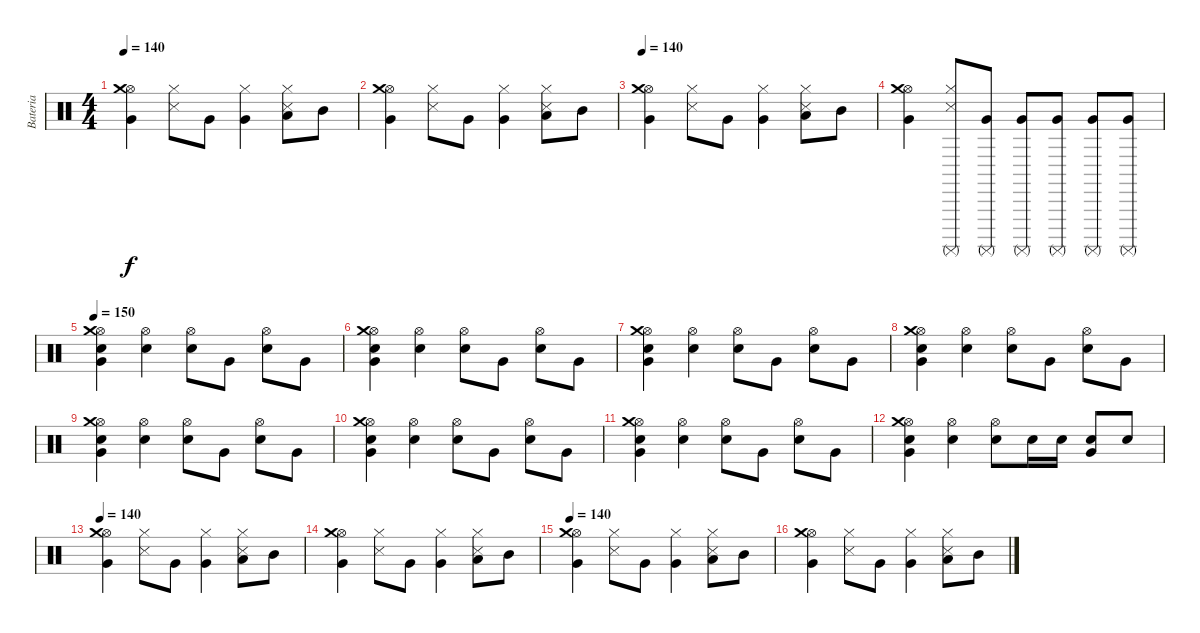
\track ("Bateria" "Bateria") {instrument percussion}
\staff {score}
\articulation defaults
\ts (4 4)
\tempo 140
\clef neutral
\ks c
("Hi-Hat (open)" "Very Low Tom (hit)" "Crash medium (hit)").4{dy f} ("Hi-Hat (closed)" "Snare (side stick) 3").8 "Very Low Tom (hit)".8 ("Hi-Hat (closed)" "Very Low Tom (hit)").4 ("Hi-Hat (closed)" "Snare (side stick) 3" "Low Tom (hit)").8 "Mid Tom (hit)".8 |
("Hi-Hat (open)" "Very Low Tom (hit)" "Crash medium (hit)").4 ("Hi-Hat (closed)" "Snare (side stick) 3").8 "Very Low Tom (hit)".8 ("Hi-Hat (closed)" "Very Low Tom (hit)").4 ("Hi-Hat (closed)" "Snare (side stick) 3" "Low Tom (hit)").8 "Mid Tom (hit)".8 |
\tempo 140
("Hi-Hat (open)" "Very Low Tom (hit)" "Crash medium (hit)").4 ("Hi-Hat (closed)" "Snare (side stick) 3").8 "Very Low Tom (hit)".8 ("Hi-Hat (closed)" "Very Low Tom (hit)").4 ("Hi-Hat (closed)" "Snare (side stick) 3" "Low Tom (hit)").8 "Mid Tom (hit)".8 |
("Hi-Hat (open)" "Very Low Tom (hit)" "Crash medium (hit)").4 ("Hi-Hat (closed)" "Snare (side stick) 3" "Surdo (mute)").8 ("Very Low Tom (hit)" "Surdo (mute)").8 ("Very Low Tom (hit)" "Surdo (mute)").8 ("Very Low Tom (hit)" "Surdo (mute)").8 ("Very Low Tom (hit)" "Surdo (mute)").8 ("Very Low Tom (hit)" "Surdo (mute)").8 |
\tempo 150
("Hi-Hat (open)" "Very Low Tom (hit)" "Electric Snare (hit)" "Crash medium (hit)").4 ("Hi-Hat (open)" "Electric Snare (hit)").4 ("Hi-Hat (open)" "Electric Snare (hit)").8 "Very Low Tom (hit)".8 ("Hi-Hat (open)" "Electric Snare (hit)").8 "Very Low Tom (hit)".8 |
("Hi-Hat (open)" "Very Low Tom (hit)" "Electric Snare (hit)" "Crash medium (hit)").4 ("Hi-Hat (open)" "Electric Snare (hit)").4 ("Hi-Hat (open)" "Electric Snare (hit)").8 "Very Low Tom (hit)".8 ("Hi-Hat (open)" "Electric Snare (hit)").8 "Very Low Tom (hit)".8 |
("Hi-Hat (open)" "Very Low Tom (hit)" "Electric Snare (hit)" "Crash medium (hit)").4 ("Hi-Hat (open)" "Electric Snare (hit)").4 ("Hi-Hat (open)" "Electric Snare (hit)").8 "Very Low Tom (hit)".8 ("Hi-Hat (open)" "Electric Snare (hit)").8 "Very Low Tom (hit)".8 |
("Hi-Hat (open)" "Very Low Tom (hit)" "Electric Snare (hit)" "Crash medium (hit)").4 ("Hi-Hat (open)" "Electric Snare (hit)").4 ("Hi-Hat (open)" "Electric Snare (hit)").8 "Very Low Tom (hit)".8 ("Hi-Hat (open)" "Electric Snare (hit)").8 "Very Low Tom (hit)".8 |
("Hi-Hat (open)" "Very Low Tom (hit)" "Electric Snare (hit)" "Crash medium (hit)").4 ("Hi-Hat (open)" "Electric Snare (hit)").4 ("Hi-Hat (open)" "Electric Snare (hit)").8 "Very Low Tom (hit)".8 ("Hi-Hat (open)" "Electric Snare (hit)").8 "Very Low Tom (hit)".8 |
("Hi-Hat (open)" "Very Low Tom (hit)" "Electric Snare (hit)" "Crash medium (hit)").4 ("Hi-Hat (open)" "Electric Snare (hit)").4 ("Hi-Hat (open)" "Electric Snare (hit)").8 "Very Low Tom (hit)".8 ("Hi-Hat (open)" "Electric Snare (hit)").8 "Very Low Tom (hit)".8 |
("Hi-Hat (open)" "Very Low Tom (hit)" "Electric Snare (hit)" "Crash medium (hit)").4 ("Hi-Hat (open)" "Electric Snare (hit)").4 ("Hi-Hat (open)" "Electric Snare (hit)").8 "Very Low Tom (hit)".8 ("Hi-Hat (open)" "Electric Snare (hit)").8 "Very Low Tom (hit)".8 |
("Hi-Hat (open)" "Very Low Tom (hit)" "Electric Snare (hit)" "Crash medium (hit)").4 ("Hi-Hat (open)" "Electric Snare (hit)").4 ("Hi-Hat (open)" "Electric Snare (hit)").8 "Electric Snare (hit)".16 "Electric Snare (hit)".16 ("Very Low Tom (hit)" "Electric Snare (hit)").8 "Electric Snare (hit)".8 |
\tempo 140
("Hi-Hat (open)" "Very Low Tom (hit)" "Crash medium (hit)").4 ("Hi-Hat (closed)" "Snare (side stick) 3").8 "Very Low Tom (hit)".8 ("Hi-Hat (closed)" "Very Low Tom (hit)").4 ("Hi-Hat (closed)" "Snare (side stick) 3" "Low Tom (hit)").8 "Mid Tom (hit)".8 |
("Hi-Hat (open)" "Very Low Tom (hit)" "Crash medium (hit)").4 ("Hi-Hat (closed)" "Snare (side stick) 3").8 "Very Low Tom (hit)".8 ("Hi-Hat (closed)" "Very Low Tom (hit)").4 ("Hi-Hat (closed)" "Snare (side stick) 3" "Low Tom (hit)").8 "Mid Tom (hit)".8 |
\tempo 140
("Hi-Hat (open)" "Very Low Tom (hit)" "Crash medium (hit)").4 ("Hi-Hat (closed)" "Snare (side stick) 3").8 "Very Low Tom (hit)".8 ("Hi-Hat (closed)" "Very Low Tom (hit)").4 ("Hi-Hat (closed)" "Snare (side stick) 3" "Low Tom (hit)").8 "Mid Tom (hit)".8 |
("Hi-Hat (open)" "Very Low Tom (hit)" "Crash medium (hit)").4 ("Hi-Hat (closed)" "Snare (side stick) 3").8 "Very Low Tom (hit)".8 ("Hi-Hat (closed)" "Very Low Tom (hit)").4 ("Hi-Hat (closed)" "Snare (side stick) 3" "Low Tom (hit)").8 "Mid Tom (hit)".8
